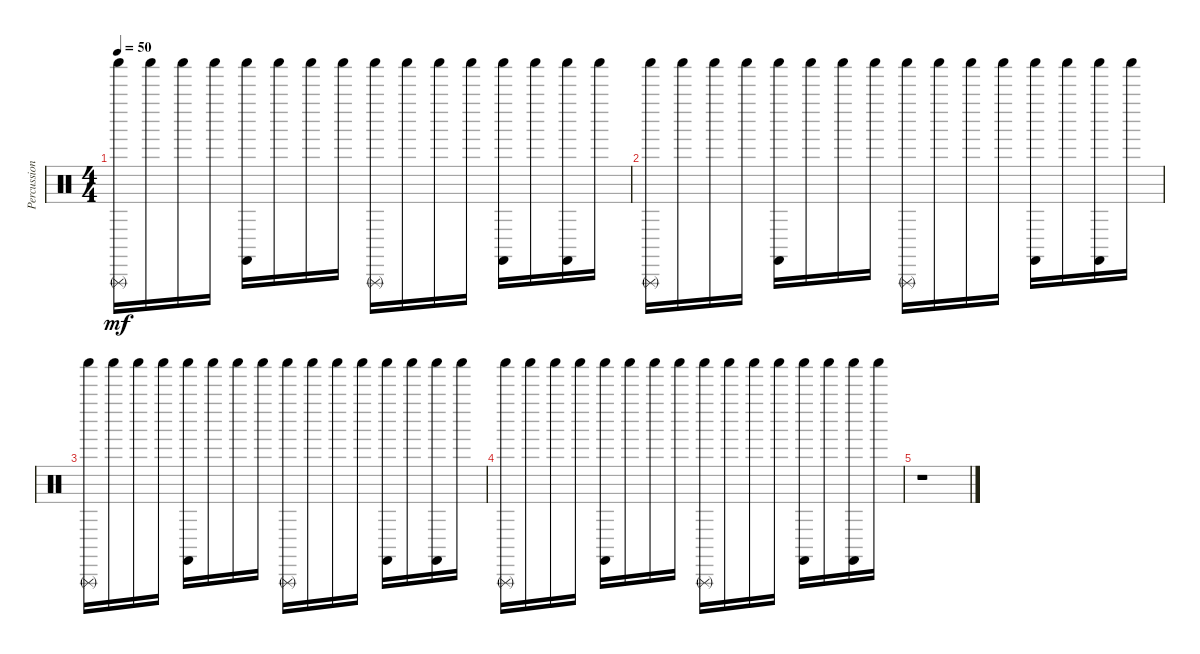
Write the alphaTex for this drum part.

\track ("Percussion" "Percussion") {instrument percussion}
\staff {score}
\articulation defaults
\ts (4 4)
\tempo 50
\clef neutral
\ks c
("Shaker (hit)" "Triangle (rnute)").16{dy mf volume 16} "Shaker (hit)".16 "Shaker (hit)".16 "Shaker (hit)".16 ("Shaker (hit)" "Castanets (hit)").16 "Shaker (hit)".16 "Shaker (hit)".16 "Shaker (hit)".16 ("Shaker (hit)" "Triangle (rnute)").16 "Shaker (hit)".16 "Shaker (hit)".16 "Shaker (hit)".16 ("Shaker (hit)" "Castanets (hit)").16 "Shaker (hit)".16 ("Shaker (hit)" "Castanets (hit)").16 "Shaker (hit)".16 |
("Shaker (hit)" "Triangle (rnute)").16 "Shaker (hit)".16 "Shaker (hit)".16 "Shaker (hit)".16 ("Shaker (hit)" "Castanets (hit)").16 "Shaker (hit)".16 "Shaker (hit)".16 "Shaker (hit)".16 ("Shaker (hit)" "Triangle (rnute)").16 "Shaker (hit)".16 "Shaker (hit)".16 "Shaker (hit)".16 ("Shaker (hit)" "Castanets (hit)").16 "Shaker (hit)".16 ("Shaker (hit)" "Castanets (hit)").16 "Shaker (hit)".16 |
("Shaker (hit)" "Triangle (rnute)").16{volume 0} "Shaker (hit)".16 "Shaker (hit)".16 "Shaker (hit)".16 ("Shaker (hit)" "Castanets (hit)").16 "Shaker (hit)".16 "Shaker (hit)".16 "Shaker (hit)".16 ("Shaker (hit)" "Triangle (rnute)").16 "Shaker (hit)".16 "Shaker (hit)".16 "Shaker (hit)".16 ("Shaker (hit)" "Castanets (hit)").16 "Shaker (hit)".16 ("Shaker (hit)" "Castanets (hit)").16 "Shaker (hit)".16 |
("Shaker (hit)" "Triangle (rnute)").16 "Shaker (hit)".16 "Shaker (hit)".16 "Shaker (hit)".16 ("Shaker (hit)" "Castanets (hit)").16 "Shaker (hit)".16 "Shaker (hit)".16 "Shaker (hit)".16 ("Shaker (hit)" "Triangle (rnute)").16 "Shaker (hit)".16 "Shaker (hit)".16 "Shaker (hit)".16 ("Shaker (hit)" "Castanets (hit)").16 "Shaker (hit)".16 ("Shaker (hit)" "Castanets (hit)").16 "Shaker (hit)".16 |
r.1
